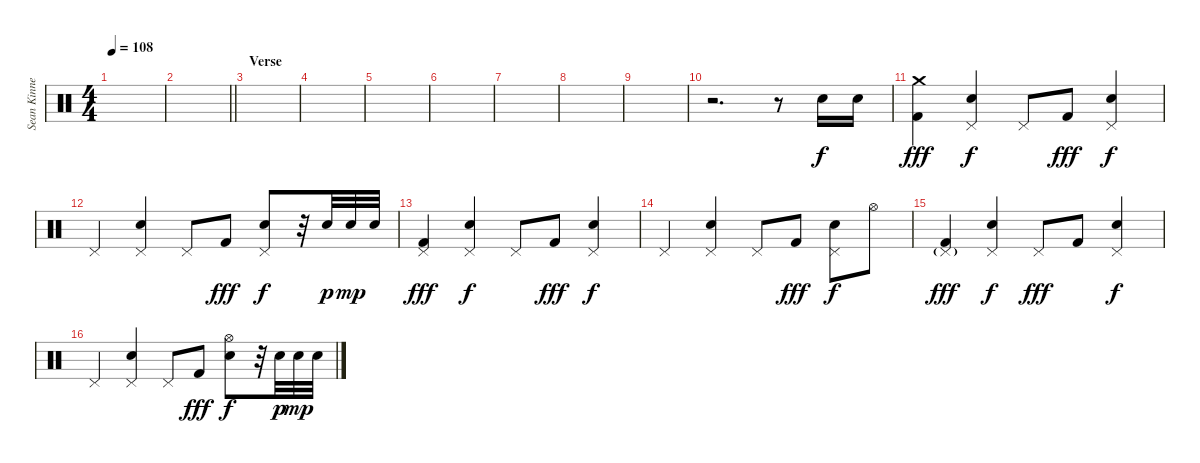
\track ("Sean Kinney" "Sean Kinne") {instrument percussion}
\staff {score}
\articulation defaults
\ts (4 4)
\tempo 108
\clef neutral
\ks c
|
\barLineRight lightlight
|
\section ("" "Verse")
|
|
|
|
|
|
|
r.2{d} r.8 "Snare (hit) 2".16 "Snare (hit) 2".16 |
("Crash medium (hit)" "Kick (hit) 2").4{dy fff} ("Pedal Hi-Hat (hit)" "Snare (hit) 2").4{dy f} "Pedal Hi-Hat (hit)".8 "Kick (hit) 2".8{dy fff} ("Pedal Hi-Hat (hit)" "Snare (hit) 2").4{dy f} |
"Pedal Hi-Hat (hit)".4 ("Pedal Hi-Hat (hit)" "Snare (hit) 2").4 "Pedal Hi-Hat (hit)".8 "Kick (hit) 2".8{dy fff} ("Pedal Hi-Hat (hit)" "Snare (hit) 2").8{dy f} r.32 "Snare (hit) 2".32{dy p} "Snare (hit) 2".32{dy mp} "Snare (hit) 2".32 |
("Pedal Hi-Hat (hit)" "Kick (hit) 2").4{dy fff} ("Pedal Hi-Hat (hit)" "Snare (hit) 2").4{dy f} "Pedal Hi-Hat (hit)".8 "Kick (hit) 2".8{dy fff} ("Pedal Hi-Hat (hit)" "Snare (hit) 2").4{dy f} |
"Pedal Hi-Hat (hit)".4 ("Pedal Hi-Hat (hit)" "Snare (hit) 2").4 "Pedal Hi-Hat (hit)".8 "Kick (hit) 2".8{dy fff} ("Pedal Hi-Hat (hit)" "Snare (hit) 2").8{dy f} "Hi-Hat (open)".8 |
("Pedal Hi-Hat (hit)"{g} "Kick (hit) 2").4{dy fff} ("Pedal Hi-Hat (hit)" "Snare (hit) 2").4{dy f} "Pedal Hi-Hat (hit)".8{dy fff} "Kick (hit) 2".8 ("Pedal Hi-Hat (hit)" "Snare (hit) 2").4{dy f} |
"Pedal Hi-Hat (hit)".4 ("Pedal Hi-Hat (hit)" "Snare (hit) 2").4 "Pedal Hi-Hat (hit)".8 "Kick (hit) 2".8{dy fff} ("Hi-Hat (open)" "Snare (hit) 2").8{dy f} r.32 "Snare (hit) 2".32{dy p} "Snare (hit) 2".32{dy mp} "Snare (hit) 2".32
